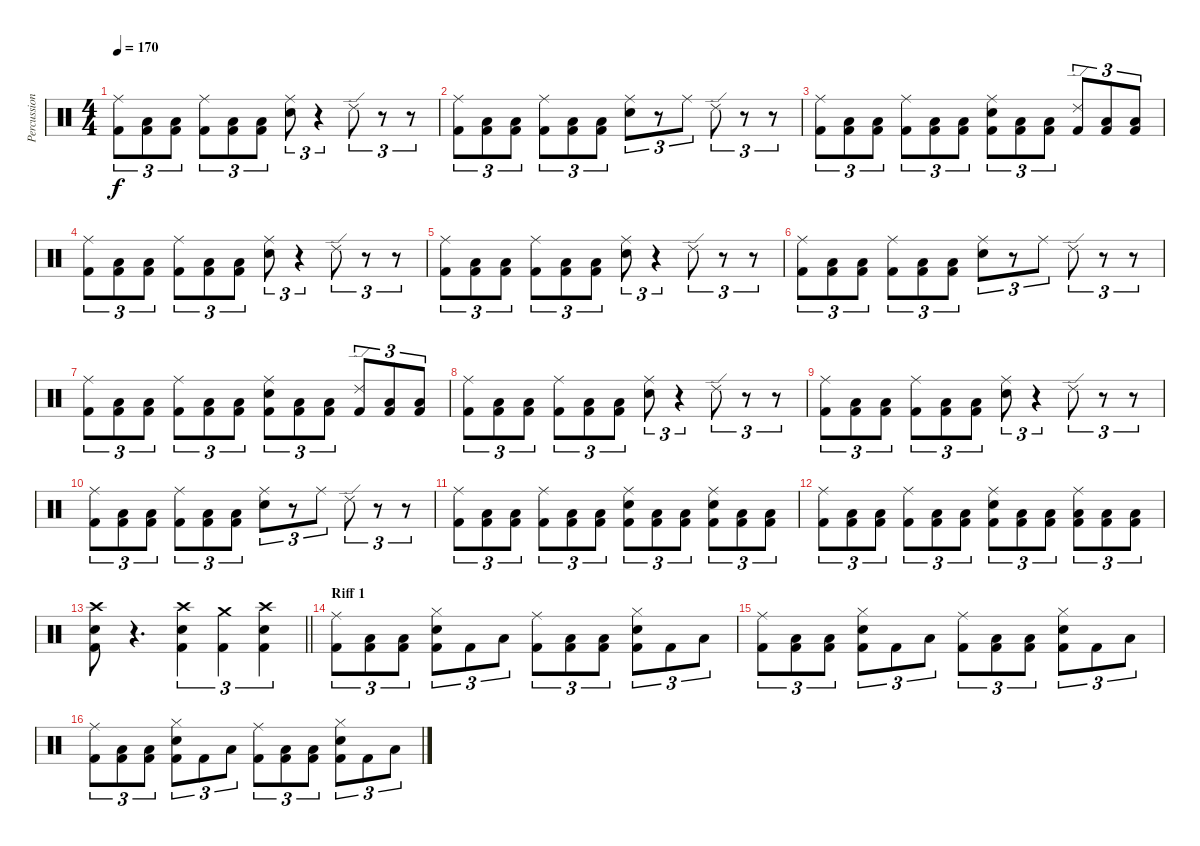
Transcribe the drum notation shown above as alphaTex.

\track ("Percussions" "Percussion") {instrument percussion}
\staff {score}
\articulation defaults
\ts (4 4)
\tempo 170
\clef neutral
\ks c
("Ride (middle)" "Kick (hit) 2").8{tu (3 2) dy f} ("Low Floor Tom (hit)" "Kick (hit) 2").8{tu (3 2)} ("Low Floor Tom (hit)" "Kick (hit) 2").8{tu (3 2)} ("Ride (middle)" "Kick (hit) 2").8{tu (3 2)} ("Low Floor Tom (hit)" "Kick (hit) 2").8{tu (3 2)} ("Low Floor Tom (hit)" "Kick (hit) 2").8{tu (3 2)} ("Ride (middle)" "Snare (hit) 2").8{tu (3 2)} r.4{tu (3 2)} "Ride (edge) 2".8{tu (3 2)} r.8{tu (3 2)} r.8{tu (3 2)} |
("Ride (middle)" "Kick (hit) 2").8{tu (3 2)} ("Low Floor Tom (hit)" "Kick (hit) 2").8{tu (3 2)} ("Low Floor Tom (hit)" "Kick (hit) 2").8{tu (3 2)} ("Ride (middle)" "Kick (hit) 2").8{tu (3 2)} ("Low Floor Tom (hit)" "Kick (hit) 2").8{tu (3 2)} ("Low Floor Tom (hit)" "Kick (hit) 2").8{tu (3 2)} ("Ride (middle)" "Snare (hit) 2").8{tu (3 2)} r.8{tu (3 2)} "Ride (middle)".8{tu (3 2)} "Ride (edge) 2".8{tu (3 2)} r.8{tu (3 2)} r.8{tu (3 2)} |
("Ride (middle)" "Kick (hit) 2").8{tu (3 2)} ("Low Floor Tom (hit)" "Kick (hit) 2").8{tu (3 2)} ("Low Floor Tom (hit)" "Kick (hit) 2").8{tu (3 2)} ("Ride (middle)" "Kick (hit) 2").8{tu (3 2)} ("Low Floor Tom (hit)" "Kick (hit) 2").8{tu (3 2)} ("Low Floor Tom (hit)" "Kick (hit) 2").8{tu (3 2)} ("Ride (middle)" "Snare (hit) 2" "Kick (hit) 2").8{tu (3 2)} ("Low Floor Tom (hit)" "Kick (hit) 2").8{tu (3 2)} ("Low Floor Tom (hit)" "Kick (hit) 2").8{tu (3 2)} ("Ride (edge) 2" "Kick (hit) 2").8{tu (3 2)} ("Low Floor Tom (hit)" "Kick (hit) 2").8{tu (3 2)} ("Low Floor Tom (hit)" "Kick (hit) 2").8{tu (3 2)} |
("Ride (middle)" "Kick (hit) 2").8{tu (3 2)} ("Low Floor Tom (hit)" "Kick (hit) 2").8{tu (3 2)} ("Low Floor Tom (hit)" "Kick (hit) 2").8{tu (3 2)} ("Ride (middle)" "Kick (hit) 2").8{tu (3 2)} ("Low Floor Tom (hit)" "Kick (hit) 2").8{tu (3 2)} ("Low Floor Tom (hit)" "Kick (hit) 2").8{tu (3 2)} ("Ride (middle)" "Snare (hit) 2").8{tu (3 2)} r.4{tu (3 2)} "Ride (edge) 2".8{tu (3 2)} r.8{tu (3 2)} r.8{tu (3 2)} |
("Ride (middle)" "Kick (hit) 2").8{tu (3 2)} ("Low Floor Tom (hit)" "Kick (hit) 2").8{tu (3 2)} ("Low Floor Tom (hit)" "Kick (hit) 2").8{tu (3 2)} ("Ride (middle)" "Kick (hit) 2").8{tu (3 2)} ("Low Floor Tom (hit)" "Kick (hit) 2").8{tu (3 2)} ("Low Floor Tom (hit)" "Kick (hit) 2").8{tu (3 2)} ("Ride (middle)" "Snare (hit) 2").8{tu (3 2)} r.4{tu (3 2)} "Ride (edge) 2".8{tu (3 2)} r.8{tu (3 2)} r.8{tu (3 2)} |
("Ride (middle)" "Kick (hit) 2").8{tu (3 2)} ("Low Floor Tom (hit)" "Kick (hit) 2").8{tu (3 2)} ("Low Floor Tom (hit)" "Kick (hit) 2").8{tu (3 2)} ("Ride (middle)" "Kick (hit) 2").8{tu (3 2)} ("Low Floor Tom (hit)" "Kick (hit) 2").8{tu (3 2)} ("Low Floor Tom (hit)" "Kick (hit) 2").8{tu (3 2)} ("Ride (middle)" "Snare (hit) 2").8{tu (3 2)} r.8{tu (3 2)} "Ride (middle)".8{tu (3 2)} "Ride (edge) 2".8{tu (3 2)} r.8{tu (3 2)} r.8{tu (3 2)} |
("Ride (middle)" "Kick (hit) 2").8{tu (3 2)} ("Low Floor Tom (hit)" "Kick (hit) 2").8{tu (3 2)} ("Low Floor Tom (hit)" "Kick (hit) 2").8{tu (3 2)} ("Ride (middle)" "Kick (hit) 2").8{tu (3 2)} ("Low Floor Tom (hit)" "Kick (hit) 2").8{tu (3 2)} ("Low Floor Tom (hit)" "Kick (hit) 2").8{tu (3 2)} ("Ride (middle)" "Snare (hit) 2" "Kick (hit) 2").8{tu (3 2)} ("Low Floor Tom (hit)" "Kick (hit) 2").8{tu (3 2)} ("Low Floor Tom (hit)" "Kick (hit) 2").8{tu (3 2)} ("Ride (edge) 2" "Kick (hit) 2").8{tu (3 2)} ("Low Floor Tom (hit)" "Kick (hit) 2").8{tu (3 2)} ("Low Floor Tom (hit)" "Kick (hit) 2").8{tu (3 2)} |
("Ride (middle)" "Kick (hit) 2").8{tu (3 2)} ("Low Floor Tom (hit)" "Kick (hit) 2").8{tu (3 2)} ("Low Floor Tom (hit)" "Kick (hit) 2").8{tu (3 2)} ("Ride (middle)" "Kick (hit) 2").8{tu (3 2)} ("Low Floor Tom (hit)" "Kick (hit) 2").8{tu (3 2)} ("Low Floor Tom (hit)" "Kick (hit) 2").8{tu (3 2)} ("Ride (middle)" "Snare (hit) 2").8{tu (3 2)} r.4{tu (3 2)} "Ride (edge) 2".8{tu (3 2)} r.8{tu (3 2)} r.8{tu (3 2)} |
("Ride (middle)" "Kick (hit) 2").8{tu (3 2)} ("Low Floor Tom (hit)" "Kick (hit) 2").8{tu (3 2)} ("Low Floor Tom (hit)" "Kick (hit) 2").8{tu (3 2)} ("Ride (middle)" "Kick (hit) 2").8{tu (3 2)} ("Low Floor Tom (hit)" "Kick (hit) 2").8{tu (3 2)} ("Low Floor Tom (hit)" "Kick (hit) 2").8{tu (3 2)} ("Ride (middle)" "Snare (hit) 2").8{tu (3 2)} r.4{tu (3 2)} "Ride (edge) 2".8{tu (3 2)} r.8{tu (3 2)} r.8{tu (3 2)} |
("Ride (middle)" "Kick (hit) 2").8{tu (3 2)} ("Low Floor Tom (hit)" "Kick (hit) 2").8{tu (3 2)} ("Low Floor Tom (hit)" "Kick (hit) 2").8{tu (3 2)} ("Ride (middle)" "Kick (hit) 2").8{tu (3 2)} ("Low Floor Tom (hit)" "Kick (hit) 2").8{tu (3 2)} ("Low Floor Tom (hit)" "Kick (hit) 2").8{tu (3 2)} ("Ride (middle)" "Snare (hit) 2").8{tu (3 2)} r.8{tu (3 2)} "Ride (middle)".8{tu (3 2)} "Ride (edge) 2".8{tu (3 2)} r.8{tu (3 2)} r.8{tu (3 2)} |
("Ride (middle)" "Kick (hit) 2").8{tu (3 2)} ("Low Floor Tom (hit)" "Kick (hit) 2").8{tu (3 2)} ("Low Floor Tom (hit)" "Kick (hit) 2").8{tu (3 2)} ("Ride (middle)" "Kick (hit) 2").8{tu (3 2)} ("Low Floor Tom (hit)" "Kick (hit) 2").8{tu (3 2)} ("Low Floor Tom (hit)" "Kick (hit) 2").8{tu (3 2)} ("Ride (middle)" "Snare (hit) 2" "Kick (hit) 2").8{tu (3 2)} ("Low Floor Tom (hit)" "Kick (hit) 2").8{tu (3 2)} ("Low Floor Tom (hit)" "Kick (hit) 2").8{tu (3 2)} ("Ride (middle)" "Snare (hit) 2" "Kick (hit) 2").8{tu (3 2)} ("Low Floor Tom (hit)" "Kick (hit) 2").8{tu (3 2)} ("Low Floor Tom (hit)" "Kick (hit) 2").8{tu (3 2)} |
("Ride (middle)" "Kick (hit) 2").8{tu (3 2)} ("Low Floor Tom (hit)" "Kick (hit) 2").8{tu (3 2)} ("Low Floor Tom (hit)" "Kick (hit) 2").8{tu (3 2)} ("Ride (middle)" "Kick (hit) 2").8{tu (3 2)} ("Low Floor Tom (hit)" "Kick (hit) 2").8{tu (3 2)} ("Low Floor Tom (hit)" "Kick (hit) 2").8{tu (3 2)} ("Ride (middle)" "Snare (hit) 2" "Kick (hit) 2").8{tu (3 2)} ("Low Floor Tom (hit)" "Kick (hit) 2").8{tu (3 2)} ("Low Floor Tom (hit)" "Kick (hit) 2").8{tu (3 2)} ("Ride (middle)" "Low Floor Tom (hit)" "Kick (hit) 2").8{tu (3 2)} ("Low Floor Tom (hit)" "Kick (hit) 2").8{tu (3 2)} ("Low Floor Tom (hit)" "Kick (hit) 2").8{tu (3 2)} |
\barLineRight lightlight
("Crash high (hit)" "Snare (hit) 2" "Kick (hit) 2").8 r.4{d} ("Crash high (hit)" "Snare (hit) 2" "Kick (hit) 2").4{tu (3 2)} ("Crash medium (hit)" "Kick (hit) 2").4{tu (3 2)} ("Crash high (hit)" "Snare (hit) 2" "Kick (hit) 2").4{tu (3 2)} |
\section ("" "Riff 1")
("Ride (middle)" "Kick (hit) 2").8{tu (3 2)} ("Low Floor Tom (hit)" "Kick (hit) 2").8{tu (3 2)} ("Low Floor Tom (hit)" "Kick (hit) 2").8{tu (3 2)} ("Hi-Hat (closed)" "Snare (hit) 2" "Kick (hit) 2").8{tu (3 2)} "Kick (hit) 2".8{tu (3 2)} "Low Floor Tom (hit)".8{tu (3 2)} ("Ride (middle)" "Kick (hit) 2").8{tu (3 2)} ("Low Floor Tom (hit)" "Kick (hit) 2").8{tu (3 2)} ("Low Floor Tom (hit)" "Kick (hit) 2").8{tu (3 2)} ("Hi-Hat (closed)" "Snare (hit) 2" "Kick (hit) 2").8{tu (3 2)} "Kick (hit) 2".8{tu (3 2)} "Low Floor Tom (hit)".8{tu (3 2)} |
("Ride (middle)" "Kick (hit) 2").8{tu (3 2)} ("Low Floor Tom (hit)" "Kick (hit) 2").8{tu (3 2)} ("Low Floor Tom (hit)" "Kick (hit) 2").8{tu (3 2)} ("Hi-Hat (closed)" "Snare (hit) 2" "Kick (hit) 2").8{tu (3 2)} "Kick (hit) 2".8{tu (3 2)} "Low Floor Tom (hit)".8{tu (3 2)} ("Ride (middle)" "Kick (hit) 2").8{tu (3 2)} ("Low Floor Tom (hit)" "Kick (hit) 2").8{tu (3 2)} ("Low Floor Tom (hit)" "Kick (hit) 2").8{tu (3 2)} ("Hi-Hat (closed)" "Snare (hit) 2" "Kick (hit) 2").8{tu (3 2)} "Kick (hit) 2".8{tu (3 2)} "Low Floor Tom (hit)".8{tu (3 2)} |
("Ride (middle)" "Kick (hit) 2").8{tu (3 2)} ("Low Floor Tom (hit)" "Kick (hit) 2").8{tu (3 2)} ("Low Floor Tom (hit)" "Kick (hit) 2").8{tu (3 2)} ("Hi-Hat (closed)" "Snare (hit) 2" "Kick (hit) 2").8{tu (3 2)} "Kick (hit) 2".8{tu (3 2)} "Low Floor Tom (hit)".8{tu (3 2)} ("Ride (middle)" "Kick (hit) 2").8{tu (3 2)} ("Low Floor Tom (hit)" "Kick (hit) 2").8{tu (3 2)} ("Low Floor Tom (hit)" "Kick (hit) 2").8{tu (3 2)} ("Hi-Hat (closed)" "Snare (hit) 2" "Kick (hit) 2").8{tu (3 2)} "Kick (hit) 2".8{tu (3 2)} "Low Floor Tom (hit)".8{tu (3 2)}
